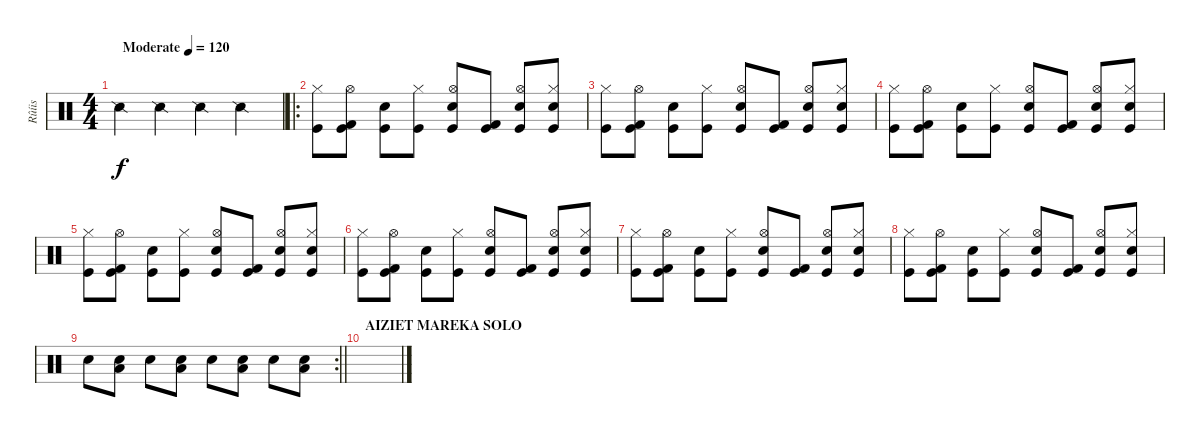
\track ("Rûíis" "Rûíis") {instrument percussion}
\staff {score}
\articulation defaults
\ts (4 4)
\tempo (120 "Moderate")
\clef neutral
\ks c "Snare (side stick) 2".4{dy f} "Snare (side stick) 2".4 "Snare (side stick) 2".4 "Snare (side stick) 2".4
|
\ro
("Kick (hit)" "Hi-Hat (closed)").8 ("Kick (hit)" "Kick (hit) 2" "Hi-Hat (open)").8 ("Kick (hit)" "Electric Snare (hit)").8 ("Kick (hit)" "Hi-Hat (closed)").8 ("Kick (hit)" "Electric Snare (hit)" "Hi-Hat (open)").8 ("Kick (hit)" "Kick (hit) 2").8 ("Kick (hit)" "Electric Snare (hit)" "Hi-Hat (open)").8 ("Kick (hit)" "Electric Snare (hit)" "Hi-Hat (closed)").8 |
("Kick (hit)" "Hi-Hat (closed)").8 ("Kick (hit)" "Kick (hit) 2" "Hi-Hat (open)").8 ("Kick (hit)" "Electric Snare (hit)").8 ("Kick (hit)" "Hi-Hat (closed)").8 ("Kick (hit)" "Electric Snare (hit)" "Hi-Hat (open)").8 ("Kick (hit)" "Kick (hit) 2").8 ("Kick (hit)" "Electric Snare (hit)" "Hi-Hat (open)").8 ("Kick (hit)" "Electric Snare (hit)" "Hi-Hat (closed)").8 |
("Kick (hit)" "Hi-Hat (closed)").8 ("Kick (hit)" "Kick (hit) 2" "Hi-Hat (open)").8 ("Kick (hit)" "Electric Snare (hit)").8 ("Kick (hit)" "Hi-Hat (closed)").8 ("Kick (hit)" "Electric Snare (hit)" "Hi-Hat (open)").8 ("Kick (hit)" "Kick (hit) 2").8 ("Kick (hit)" "Electric Snare (hit)" "Hi-Hat (open)").8 ("Kick (hit)" "Electric Snare (hit)" "Hi-Hat (closed)").8 |
("Kick (hit)" "Hi-Hat (closed)").8 ("Kick (hit)" "Kick (hit) 2" "Hi-Hat (open)").8 ("Kick (hit)" "Electric Snare (hit)").8 ("Kick (hit)" "Hi-Hat (closed)").8 ("Kick (hit)" "Electric Snare (hit)" "Hi-Hat (open)").8 ("Kick (hit)" "Kick (hit) 2").8 ("Kick (hit)" "Electric Snare (hit)" "Hi-Hat (open)").8 ("Kick (hit)" "Electric Snare (hit)" "Hi-Hat (closed)").8 |
("Kick (hit)" "Hi-Hat (closed)").8 ("Kick (hit)" "Kick (hit) 2" "Hi-Hat (open)").8 ("Kick (hit)" "Electric Snare (hit)").8 ("Kick (hit)" "Hi-Hat (closed)").8 ("Kick (hit)" "Electric Snare (hit)" "Hi-Hat (open)").8 ("Kick (hit)" "Kick (hit) 2").8 ("Kick (hit)" "Electric Snare (hit)" "Hi-Hat (open)").8 ("Kick (hit)" "Electric Snare (hit)" "Hi-Hat (closed)").8 |
("Kick (hit)" "Hi-Hat (closed)").8 ("Kick (hit)" "Kick (hit) 2" "Hi-Hat (open)").8 ("Kick (hit)" "Electric Snare (hit)").8 ("Kick (hit)" "Hi-Hat (closed)").8 ("Kick (hit)" "Electric Snare (hit)" "Hi-Hat (open)").8 ("Kick (hit)" "Kick (hit) 2").8 ("Kick (hit)" "Electric Snare (hit)" "Hi-Hat (open)").8 ("Kick (hit)" "Electric Snare (hit)" "Hi-Hat (closed)").8 |
("Kick (hit)" "Hi-Hat (closed)").8 ("Kick (hit)" "Kick (hit) 2" "Hi-Hat (open)").8 ("Kick (hit)" "Electric Snare (hit)").8 ("Kick (hit)" "Hi-Hat (closed)").8 ("Kick (hit)" "Electric Snare (hit)" "Hi-Hat (open)").8 ("Kick (hit)" "Kick (hit) 2").8 ("Kick (hit)" "Electric Snare (hit)" "Hi-Hat (open)").8 ("Kick (hit)" "Electric Snare (hit)" "Hi-Hat (closed)").8 |
\rc 2
\barLineRight lightlight "Electric Snare (hit)".8
("Low Floor Tom (hit)" "Electric Snare (hit)").8 "Electric Snare (hit)".8 ("Low Floor Tom (hit)" "Electric Snare (hit)").8 "Electric Snare (hit)".8 ("Low Floor Tom (hit)" "Electric Snare (hit)").8 "Electric Snare (hit)".8 ("Low Floor Tom (hit)" "Electric Snare (hit)").8 |
\section ("" "AIZIET MAREKA SOLO")
